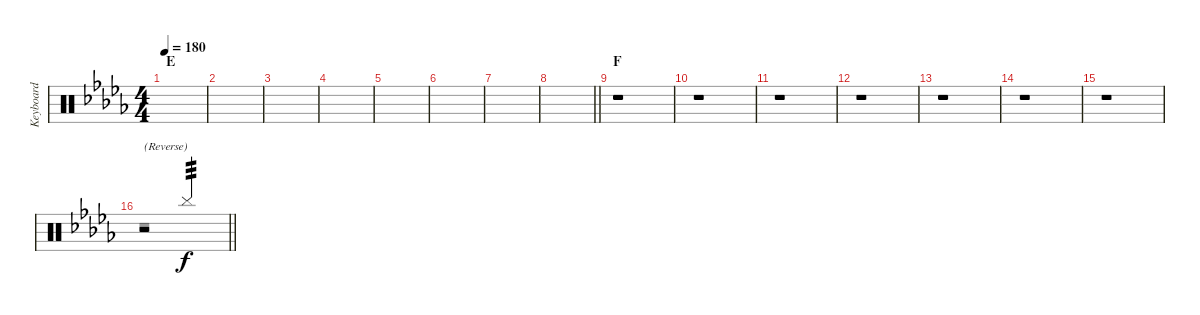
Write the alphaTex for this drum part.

\track ("Keyboard" "Keyboard") {instrument percussion}
\staff {score}
\articulation defaults
\voice
\ts (4 4)
\section ("" "E")
\tempo 180
\clef neutral
\ks db
|
|
|
|
|
|
|
\barLineRight lightlight
|
\section ("" "F")
r.1 |
r.1 |
r.1 |
r.1 |
r.1 |
r.1 |
r.1 |
\barLineRight lightlight
r.2{txt "(Reverse)"} "Cymbal (hit)".2{tp 3}
\voice
\clef neutral
\ottava regular
\simile none
\ks db
|
|
|
|
|
|
|
\barLineRight lightlight
|
|
|
|
|
|
|
|
\barLineRight lightlight
r.1
